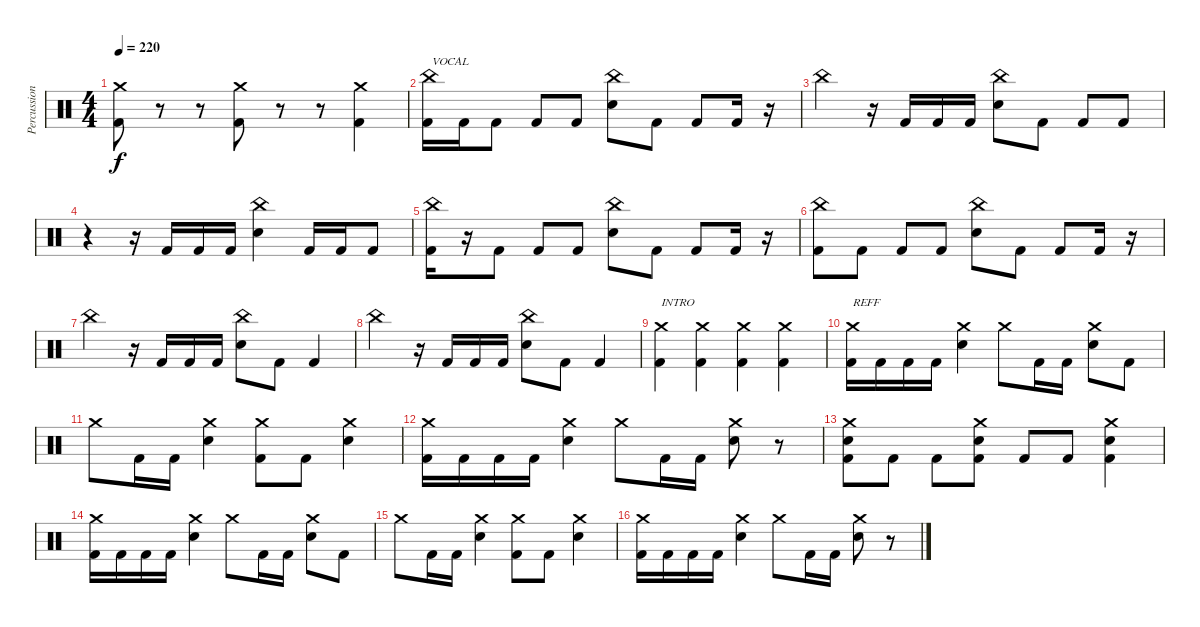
\track ("Percussion" "Percussion") {solo instrument percussion}
\staff {score}
\articulation defaults
\ts (4 4)
\tempo 220
\clef neutral
\ks c
("Crash medium (hit)" "Kick (hit) 2").8{dy f} r.8 r.8 ("Crash medium (hit)" "Kick (hit) 2").8 r.8 r.8 ("Crash medium (hit)" "Kick (hit) 2").4 |
("China (hit)" "Kick (hit) 2").16{txt "VOCAL"} "Kick (hit) 2".16 "Kick (hit) 2".8 "Kick (hit) 2".8 "Kick (hit) 2".8 ("China (hit)" "Electric Snare (hit)").8 "Kick (hit) 2".8 "Kick (hit) 2".8 "Kick (hit) 2".16 r.16 |
"China (hit)".4 r.16 "Kick (hit) 2".16 "Kick (hit) 2".16 "Kick (hit) 2".16 ("China (hit)" "Electric Snare (hit)").8 "Kick (hit) 2".8 "Kick (hit) 2".8 "Kick (hit) 2".8 |
r.4 r.16 "Kick (hit) 2".16 "Kick (hit) 2".16 "Kick (hit) 2".16 ("China (hit)" "Electric Snare (hit)").4 "Kick (hit) 2".16 "Kick (hit) 2".16 "Kick (hit) 2".8 |
("China (hit)" "Kick (hit) 2").16 r.16 "Kick (hit) 2".8 "Kick (hit) 2".8 "Kick (hit) 2".8 ("China (hit)" "Electric Snare (hit)").8 "Kick (hit) 2".8 "Kick (hit) 2".8 "Kick (hit) 2".16 r.16 |
("China (hit)" "Kick (hit) 2").8 "Kick (hit) 2".8 "Kick (hit) 2".8 "Kick (hit) 2".8 ("China (hit)" "Electric Snare (hit)").8 "Kick (hit) 2".8 "Kick (hit) 2".8 "Kick (hit) 2".16 r.16 |
"China (hit)".4 r.16 "Kick (hit) 2".16 "Kick (hit) 2".16 "Kick (hit) 2".16 ("China (hit)" "Electric Snare (hit)").8 "Kick (hit) 2".8 "Kick (hit) 2".4 |
"China (hit)".4 r.16 "Kick (hit) 2".16 "Kick (hit) 2".16 "Kick (hit) 2".16 ("China (hit)" "Electric Snare (hit)").8 "Kick (hit) 2".8 "Kick (hit) 2".4 |
("Crash medium (hit)" "Kick (hit) 2").4{txt "INTRO"} ("Crash medium (hit)" "Kick (hit) 2").4 ("Crash medium (hit)" "Kick (hit) 2").4 ("Crash medium (hit)" "Kick (hit) 2").4 |
("Crash medium (hit)" "Kick (hit) 2").16{txt "REFF"} "Kick (hit) 2".16 "Kick (hit) 2".16 "Kick (hit) 2".16 ("Crash medium (hit)" "Electric Snare (hit)").4 "Crash medium (hit)".8 "Kick (hit) 2".16 "Kick (hit) 2".16 ("Crash medium (hit)" "Electric Snare (hit)").8 "Kick (hit) 2".8 |
"Crash medium (hit)".8 "Kick (hit) 2".16 "Kick (hit) 2".16 ("Crash medium (hit)" "Electric Snare (hit)").4 ("Crash medium (hit)" "Kick (hit) 2").8 "Kick (hit) 2".8 ("Crash medium (hit)" "Electric Snare (hit)").4 |
("Crash medium (hit)" "Kick (hit) 2").16 "Kick (hit) 2".16 "Kick (hit) 2".16 "Kick (hit) 2".16 ("Crash medium (hit)" "Electric Snare (hit)").4 "Crash medium (hit)".8 "Kick (hit) 2".16 "Kick (hit) 2".16 ("Crash medium (hit)" "Electric Snare (hit)").8 r.8 |
("Crash medium (hit)" "Electric Snare (hit)" "Kick (hit) 2").8 "Kick (hit) 2".8 "Kick (hit) 2".8 ("Crash medium (hit)" "Electric Snare (hit)" "Kick (hit) 2").8 "Kick (hit) 2".8 "Kick (hit) 2".8 ("Crash medium (hit)" "Electric Snare (hit)" "Kick (hit) 2").4 |
("Crash medium (hit)" "Kick (hit) 2").16 "Kick (hit) 2".16 "Kick (hit) 2".16 "Kick (hit) 2".16 ("Crash medium (hit)" "Electric Snare (hit)").4 "Crash medium (hit)".8 "Kick (hit) 2".16 "Kick (hit) 2".16 ("Crash medium (hit)" "Electric Snare (hit)").8 "Kick (hit) 2".8 |
"Crash medium (hit)".8 "Kick (hit) 2".16 "Kick (hit) 2".16 ("Crash medium (hit)" "Electric Snare (hit)").4 ("Crash medium (hit)" "Kick (hit) 2").8 "Kick (hit) 2".8 ("Crash medium (hit)" "Electric Snare (hit)").4 |
("Crash medium (hit)" "Kick (hit) 2").16 "Kick (hit) 2".16 "Kick (hit) 2".16 "Kick (hit) 2".16 ("Crash medium (hit)" "Electric Snare (hit)").4 "Crash medium (hit)".8 "Kick (hit) 2".16 "Kick (hit) 2".16 ("Crash medium (hit)" "Electric Snare (hit)").8 r.8
